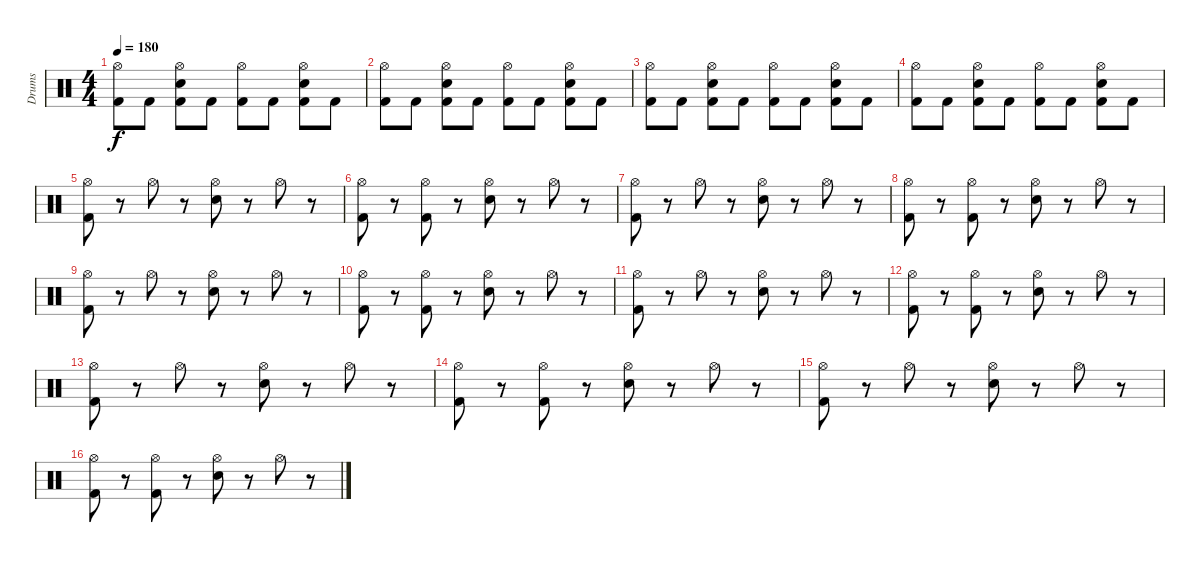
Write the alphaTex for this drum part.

\track ("Drums" "Drums") {instrument percussion}
\staff {score}
\articulation defaults
\ts (4 4)
\tempo 180
\clef neutral
\ks c
("Hi-Hat (open)" "Kick (hit) 2").8{dy f} "Kick (hit) 2".8 ("Hi-Hat (open)" "Electric Snare (hit)" "Kick (hit) 2").8 "Kick (hit) 2".8 ("Hi-Hat (open)" "Kick (hit) 2").8 "Kick (hit) 2".8 ("Hi-Hat (open)" "Electric Snare (hit)" "Kick (hit) 2").8 "Kick (hit) 2".8 |
("Hi-Hat (open)" "Kick (hit) 2").8 "Kick (hit) 2".8 ("Hi-Hat (open)" "Electric Snare (hit)" "Kick (hit) 2").8 "Kick (hit) 2".8 ("Hi-Hat (open)" "Kick (hit) 2").8 "Kick (hit) 2".8 ("Hi-Hat (open)" "Electric Snare (hit)" "Kick (hit) 2").8 "Kick (hit) 2".8 |
("Hi-Hat (open)" "Kick (hit) 2").8 "Kick (hit) 2".8 ("Hi-Hat (open)" "Electric Snare (hit)" "Kick (hit) 2").8 "Kick (hit) 2".8 ("Hi-Hat (open)" "Kick (hit) 2").8 "Kick (hit) 2".8 ("Hi-Hat (open)" "Electric Snare (hit)" "Kick (hit) 2").8 "Kick (hit) 2".8 |
("Hi-Hat (open)" "Kick (hit) 2").8 "Kick (hit) 2".8 ("Hi-Hat (open)" "Electric Snare (hit)" "Kick (hit) 2").8 "Kick (hit) 2".8 ("Hi-Hat (open)" "Kick (hit) 2").8 "Kick (hit) 2".8 ("Hi-Hat (open)" "Electric Snare (hit)" "Kick (hit) 2").8 "Kick (hit) 2".8 |
("Hi-Hat (open)" "Kick (hit) 2").8 r.8 "Hi-Hat (open)".8 r.8 ("Hi-Hat (open)" "Electric Snare (hit)").8 r.8 "Hi-Hat (open)".8 r.8 |
("Hi-Hat (open)" "Kick (hit) 2").8 r.8 ("Hi-Hat (open)" "Kick (hit) 2").8 r.8 ("Hi-Hat (open)" "Electric Snare (hit)").8 r.8 "Hi-Hat (open)".8 r.8 |
("Hi-Hat (open)" "Kick (hit) 2").8 r.8 "Hi-Hat (open)".8 r.8 ("Hi-Hat (open)" "Electric Snare (hit)").8 r.8 "Hi-Hat (open)".8 r.8 |
("Hi-Hat (open)" "Kick (hit) 2").8 r.8 ("Hi-Hat (open)" "Kick (hit) 2").8 r.8 ("Hi-Hat (open)" "Electric Snare (hit)").8 r.8 "Hi-Hat (open)".8 r.8 |
("Hi-Hat (open)" "Kick (hit) 2").8 r.8 "Hi-Hat (open)".8 r.8 ("Hi-Hat (open)" "Electric Snare (hit)").8 r.8 "Hi-Hat (open)".8 r.8 |
("Hi-Hat (open)" "Kick (hit) 2").8 r.8 ("Hi-Hat (open)" "Kick (hit) 2").8 r.8 ("Hi-Hat (open)" "Electric Snare (hit)").8 r.8 "Hi-Hat (open)".8 r.8 |
("Hi-Hat (open)" "Kick (hit) 2").8 r.8 "Hi-Hat (open)".8 r.8 ("Hi-Hat (open)" "Electric Snare (hit)").8 r.8 "Hi-Hat (open)".8 r.8 |
("Hi-Hat (open)" "Kick (hit) 2").8 r.8 ("Hi-Hat (open)" "Kick (hit) 2").8 r.8 ("Hi-Hat (open)" "Electric Snare (hit)").8 r.8 "Hi-Hat (open)".8 r.8 |
("Hi-Hat (open)" "Kick (hit) 2").8 r.8 "Hi-Hat (open)".8 r.8 ("Hi-Hat (open)" "Electric Snare (hit)").8 r.8 "Hi-Hat (open)".8 r.8 |
("Hi-Hat (open)" "Kick (hit) 2").8 r.8 ("Hi-Hat (open)" "Kick (hit) 2").8 r.8 ("Hi-Hat (open)" "Electric Snare (hit)").8 r.8 "Hi-Hat (open)".8 r.8 |
("Hi-Hat (open)" "Kick (hit) 2").8 r.8 "Hi-Hat (open)".8 r.8 ("Hi-Hat (open)" "Electric Snare (hit)").8 r.8 "Hi-Hat (open)".8 r.8 |
("Hi-Hat (open)" "Kick (hit) 2").8 r.8 ("Hi-Hat (open)" "Kick (hit) 2").8 r.8 ("Hi-Hat (open)" "Electric Snare (hit)").8 r.8 "Hi-Hat (open)".8 r.8
